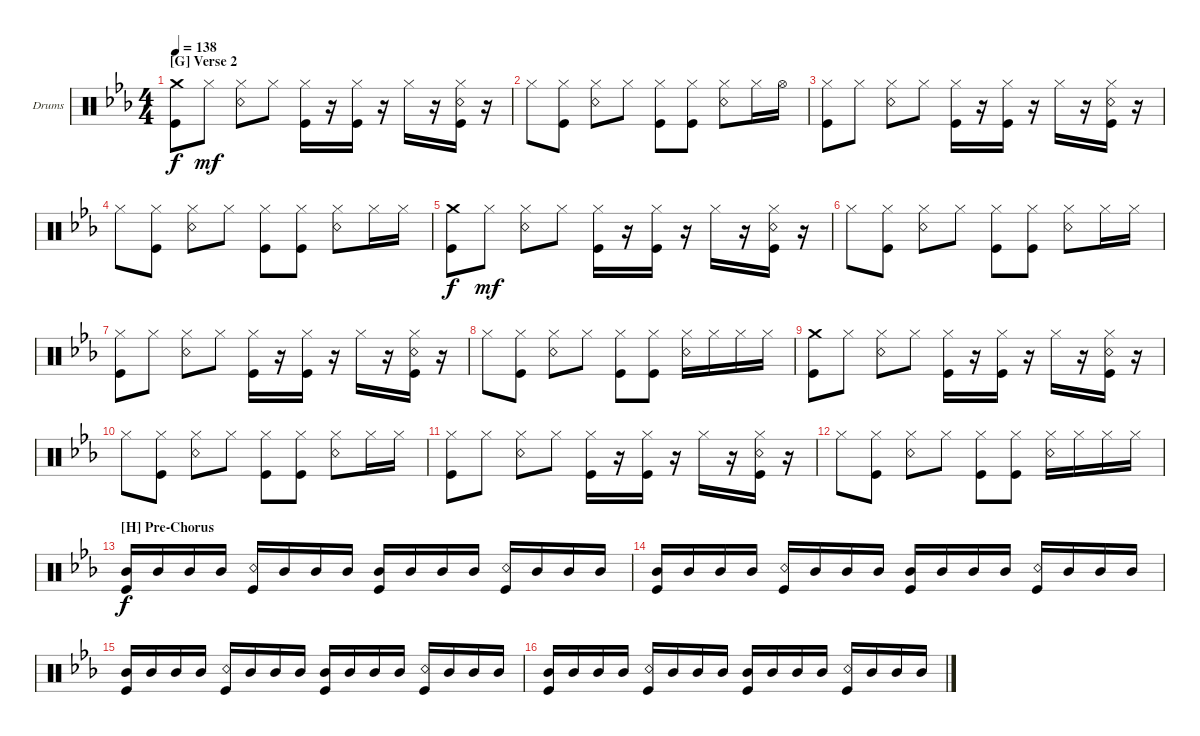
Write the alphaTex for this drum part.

\defaultSystemsLayout 4
\bracketExtendMode groupsimilarinstruments
\firstSystemTrackNameOrientation horizontal
\otherSystemsTrackNameOrientation horizontal
\track ("Drums" "Drums") {instrument percussion}
\staff {score}
\articulation defaults
\ts (4 4)
\section ("G" "Verse 2")
\tempo 138
\clef neutral
\ks eb
("Kick (hit)" "Crash medium (hit)").8{dy f} "Hi-Hat (closed)".8{dy mf} ("Hi-Hat (closed)" "Snare (rim shot)").8 "Hi-Hat (closed)".8 ("Hi-Hat (closed)" "Kick (hit)").16 r.16 ("Kick (hit)" "Hi-Hat (closed)").16 r.16 "Hi-Hat (closed)".16 r.16 ("Kick (hit)" "Snare (rim shot)" "Hi-Hat (closed)").16 r.16 |
"Hi-Hat (closed)".8 ("Kick (hit)" "Hi-Hat (closed)").8 ("Hi-Hat (closed)" "Snare (rim shot)").8 "Hi-Hat (closed)".8 ("Hi-Hat (closed)" "Kick (hit)").8 ("Kick (hit)" "Hi-Hat (closed)").8 ("Hi-Hat (closed)" "Snare (rim shot)").8 "Hi-Hat (closed)".16 "Hi-Hat (open)".16 |
("Kick (hit)" "Hi-Hat (closed)").8 "Hi-Hat (closed)".8 ("Hi-Hat (closed)" "Snare (rim shot)").8 "Hi-Hat (closed)".8 ("Hi-Hat (closed)" "Kick (hit)").16 r.16 ("Kick (hit)" "Hi-Hat (closed)").16 r.16 "Hi-Hat (closed)".16 r.16 ("Kick (hit)" "Hi-Hat (closed)" "Snare (rim shot)").16 r.16 |
"Hi-Hat (closed)".8 ("Kick (hit)" "Hi-Hat (closed)").8 ("Hi-Hat (closed)" "Snare (rim shot)").8 "Hi-Hat (closed)".8 ("Hi-Hat (closed)" "Kick (hit)").8 ("Kick (hit)" "Hi-Hat (closed)").8 ("Hi-Hat (closed)" "Snare (rim shot)").8 "Hi-Hat (closed)".16 "Hi-Hat (closed)".16 |
("Kick (hit)" "Crash medium (hit)").8{dy f} "Hi-Hat (closed)".8{dy mf} ("Hi-Hat (closed)" "Snare (rim shot)").8 "Hi-Hat (closed)".8 ("Hi-Hat (closed)" "Kick (hit)").16 r.16 ("Kick (hit)" "Hi-Hat (closed)").16 r.16 "Hi-Hat (closed)".16 r.16 ("Kick (hit)" "Hi-Hat (closed)" "Snare (rim shot)").16 r.16 |
"Hi-Hat (closed)".8 ("Kick (hit)" "Hi-Hat (closed)").8 ("Hi-Hat (closed)" "Snare (rim shot)").8 "Hi-Hat (closed)".8 ("Hi-Hat (closed)" "Kick (hit)").8 ("Kick (hit)" "Hi-Hat (closed)").8 ("Hi-Hat (closed)" "Snare (rim shot)").8 "Hi-Hat (closed)".16 "Hi-Hat (closed)".16 |
("Kick (hit)" "Hi-Hat (closed)").8 "Hi-Hat (closed)".8 ("Hi-Hat (closed)" "Snare (rim shot)").8 "Hi-Hat (closed)".8 ("Hi-Hat (closed)" "Kick (hit)").16 r.16 ("Kick (hit)" "Hi-Hat (closed)").16 r.16 "Hi-Hat (closed)".16 r.16 ("Kick (hit)" "Hi-Hat (closed)" "Snare (rim shot)").16 r.16 |
"Hi-Hat (closed)".8 ("Kick (hit)" "Hi-Hat (closed)").8 ("Hi-Hat (closed)" "Snare (rim shot)").8 "Hi-Hat (closed)".8 ("Hi-Hat (closed)" "Kick (hit)").8 ("Kick (hit)" "Hi-Hat (closed)").8 ("Hi-Hat (closed)" "Snare (rim shot)").16 "Hi-Hat (closed)".16 "Hi-Hat (closed)".16 "Hi-Hat (closed)".16 |
("Kick (hit)" "Crash medium (hit)").8 "Hi-Hat (closed)".8 ("Hi-Hat (closed)" "Snare (rim shot)").8 "Hi-Hat (closed)".8 ("Hi-Hat (closed)" "Kick (hit)").16 r.16 ("Kick (hit)" "Hi-Hat (closed)").16 r.16 "Hi-Hat (closed)".16 r.16 ("Kick (hit)" "Hi-Hat (closed)" "Snare (rim shot)").16 r.16 |
"Hi-Hat (closed)".8 ("Kick (hit)" "Hi-Hat (closed)").8 ("Hi-Hat (closed)" "Snare (rim shot)").8 "Hi-Hat (closed)".8 ("Hi-Hat (closed)" "Kick (hit)").8 ("Kick (hit)" "Hi-Hat (closed)").8 ("Hi-Hat (closed)" "Snare (rim shot)").8 "Hi-Hat (closed)".16 "Hi-Hat (closed)".16 |
("Kick (hit)" "Hi-Hat (closed)").8 "Hi-Hat (closed)".8 ("Hi-Hat (closed)" "Snare (rim shot)").8 "Hi-Hat (closed)".8 ("Hi-Hat (closed)" "Kick (hit)").16 r.16 ("Kick (hit)" "Hi-Hat (closed)").16 r.16 "Hi-Hat (closed)".16 r.16 ("Kick (hit)" "Hi-Hat (closed)" "Snare (rim shot)").16 r.16 |
"Hi-Hat (closed)".8 ("Kick (hit)" "Hi-Hat (closed)").8 ("Hi-Hat (closed)" "Snare (rim shot)").8 "Hi-Hat (closed)".8 ("Hi-Hat (closed)" "Kick (hit)").8 ("Kick (hit)" "Hi-Hat (closed)").8 ("Hi-Hat (closed)" "Snare (rim shot)").16 "Hi-Hat (closed)".16 "Hi-Hat (closed)".16 "Hi-Hat (closed)".16 |
\section ("H" "Pre-Chorus")
("Mid Tom (hit)" "Kick (hit)").16{dy f} "Mid Tom (hit)".16 "Mid Tom (hit)".16 "Mid Tom (hit)".16 ("Snare (rim shot)" "Kick (hit)").16 "Mid Tom (hit)".16 "Mid Tom (hit)".16 "Mid Tom (hit)".16 ("Mid Tom (hit)" "Kick (hit)").16 "Mid Tom (hit)".16 "Mid Tom (hit)".16 "Mid Tom (hit)".16 ("Snare (rim shot)" "Kick (hit)").16 "Mid Tom (hit)".16 "Mid Tom (hit)".16 "Mid Tom (hit)".16 |
("Mid Tom (hit)" "Kick (hit)").16 "Mid Tom (hit)".16 "Mid Tom (hit)".16 "Mid Tom (hit)".16 ("Snare (rim shot)" "Kick (hit)").16 "Mid Tom (hit)".16 "Mid Tom (hit)".16 "Mid Tom (hit)".16 ("Mid Tom (hit)" "Kick (hit)").16 "Mid Tom (hit)".16 "Mid Tom (hit)".16 "Mid Tom (hit)".16 ("Snare (rim shot)" "Kick (hit)").16 "Mid Tom (hit)".16 "Mid Tom (hit)".16 "Mid Tom (hit)".16 |
("Mid Tom (hit)" "Kick (hit)").16 "Mid Tom (hit)".16 "Mid Tom (hit)".16 "Mid Tom (hit)".16 ("Snare (rim shot)" "Kick (hit)").16 "Mid Tom (hit)".16 "Mid Tom (hit)".16 "Mid Tom (hit)".16 ("Mid Tom (hit)" "Kick (hit)").16 "Mid Tom (hit)".16 "Mid Tom (hit)".16 "Mid Tom (hit)".16 ("Snare (rim shot)" "Kick (hit)").16 "Mid Tom (hit)".16 "Mid Tom (hit)".16 "Mid Tom (hit)".16 |
("Mid Tom (hit)" "Kick (hit)").16 "Mid Tom (hit)".16 "Mid Tom (hit)".16 "Mid Tom (hit)".16 ("Snare (rim shot)" "Kick (hit)").16 "Mid Tom (hit)".16 "Mid Tom (hit)".16 "Mid Tom (hit)".16 ("Mid Tom (hit)" "Kick (hit)").16 "Mid Tom (hit)".16 "Mid Tom (hit)".16 "Mid Tom (hit)".16 ("Snare (rim shot)" "Kick (hit)").16 "Mid Tom (hit)".16 "Mid Tom (hit)".16 "Mid Tom (hit)".16
